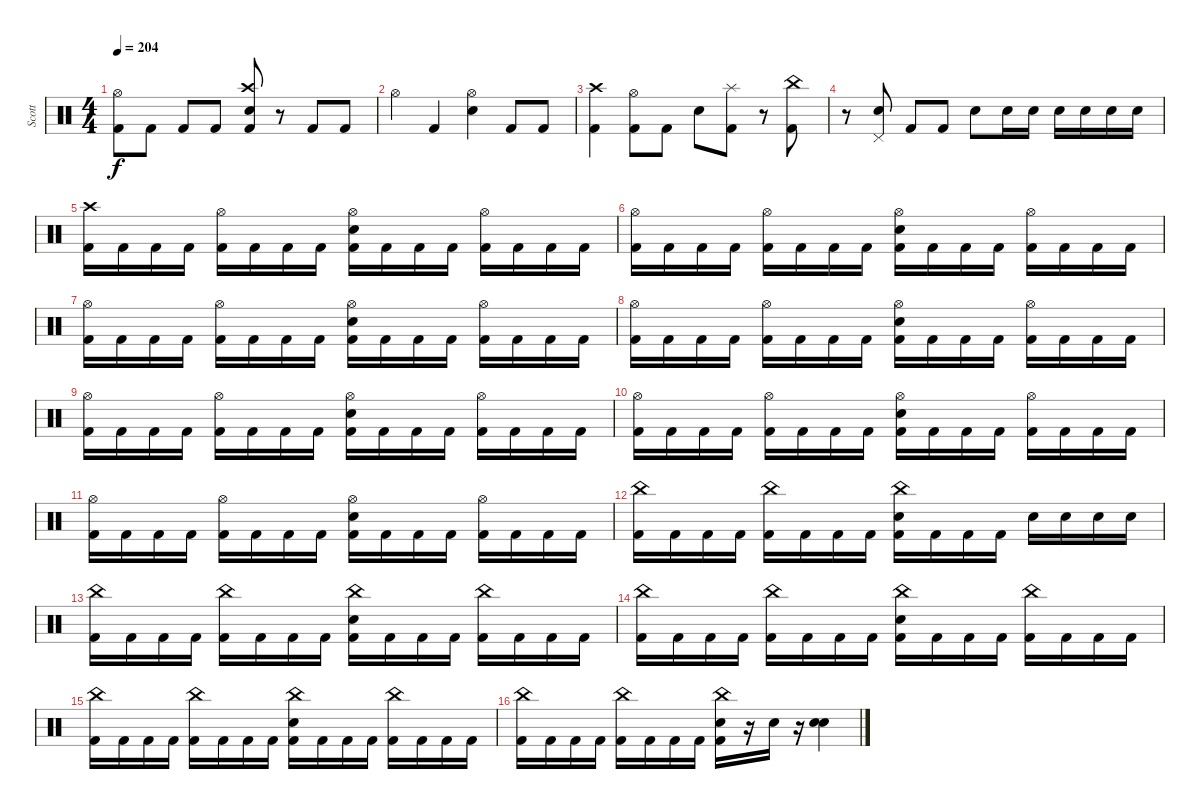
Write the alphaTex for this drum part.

\track ("Scott" "Scott") {instrument percussion}
\staff {score}
\articulation defaults
\ts (4 4)
\tempo 204
\clef neutral
\ks c
("Hi-Hat (open)" "Kick (hit) 2").8{dy f} "Kick (hit) 2".8 "Kick (hit) 2".8 "Kick (hit) 2".8 ("Crash high (hit)" "Snare (hit) 2" "Kick (hit) 2").8 r.8 "Kick (hit) 2".8 "Kick (hit) 2".8 |
"Hi-Hat (open)".4 "Kick (hit) 2".4 ("Hi-Hat (open)" "Snare (hit) 2").4 "Kick (hit) 2".8 "Kick (hit) 2".8 |
("Crash high (hit)" "Kick (hit) 2").4 ("Hi-Hat (open)" "Kick (hit) 2").8 "Kick (hit) 2".8 "Snare (hit) 2".8 ("Splash (hit)" "Kick (hit) 2").8 r.8 ("China (hit)" "Kick (hit) 2").8 |
r.8 ("Pedal Hi-Hat (hit)" "Snare (hit) 2").8 "Kick (hit) 2".8 "Kick (hit) 2".8 "Snare (hit) 2".8 "Snare (hit) 2".16 "Snare (hit) 2".16 "Snare (hit) 2".16 "Snare (hit) 2".16 "Snare (hit) 2".16 "Snare (hit) 2".16 |
("Crash high (hit)" "Kick (hit) 2").16 "Kick (hit) 2".16 "Kick (hit) 2".16 "Kick (hit) 2".16 ("Hi-Hat (open)" "Kick (hit) 2").16 "Kick (hit) 2".16 "Kick (hit) 2".16 "Kick (hit) 2".16 ("Hi-Hat (open)" "Snare (hit) 2" "Kick (hit) 2").16 "Kick (hit) 2".16 "Kick (hit) 2".16 "Kick (hit) 2".16 ("Hi-Hat (open)" "Kick (hit) 2").16 "Kick (hit) 2".16 "Kick (hit) 2".16 "Kick (hit) 2".16 |
("Hi-Hat (open)" "Kick (hit) 2").16 "Kick (hit) 2".16 "Kick (hit) 2".16 "Kick (hit) 2".16 ("Hi-Hat (open)" "Kick (hit) 2").16 "Kick (hit) 2".16 "Kick (hit) 2".16 "Kick (hit) 2".16 ("Hi-Hat (open)" "Snare (hit) 2" "Kick (hit) 2").16 "Kick (hit) 2".16 "Kick (hit) 2".16 "Kick (hit) 2".16 ("Hi-Hat (open)" "Kick (hit) 2").16 "Kick (hit) 2".16 "Kick (hit) 2".16 "Kick (hit) 2".16 |
("Hi-Hat (open)" "Kick (hit) 2").16 "Kick (hit) 2".16 "Kick (hit) 2".16 "Kick (hit) 2".16 ("Hi-Hat (open)" "Kick (hit) 2").16 "Kick (hit) 2".16 "Kick (hit) 2".16 "Kick (hit) 2".16 ("Hi-Hat (open)" "Snare (hit) 2" "Kick (hit) 2").16 "Kick (hit) 2".16 "Kick (hit) 2".16 "Kick (hit) 2".16 ("Hi-Hat (open)" "Kick (hit) 2").16 "Kick (hit) 2".16 "Kick (hit) 2".16 "Kick (hit) 2".16 |
("Hi-Hat (open)" "Kick (hit) 2").16 "Kick (hit) 2".16 "Kick (hit) 2".16 "Kick (hit) 2".16 ("Hi-Hat (open)" "Kick (hit) 2").16 "Kick (hit) 2".16 "Kick (hit) 2".16 "Kick (hit) 2".16 ("Hi-Hat (open)" "Snare (hit) 2" "Kick (hit) 2").16 "Kick (hit) 2".16 "Kick (hit) 2".16 "Kick (hit) 2".16 ("Hi-Hat (open)" "Kick (hit) 2").16 "Kick (hit) 2".16 "Kick (hit) 2".16 "Kick (hit) 2".16 |
("Hi-Hat (open)" "Kick (hit) 2").16 "Kick (hit) 2".16 "Kick (hit) 2".16 "Kick (hit) 2".16 ("Hi-Hat (open)" "Kick (hit) 2").16 "Kick (hit) 2".16 "Kick (hit) 2".16 "Kick (hit) 2".16 ("Hi-Hat (open)" "Snare (hit) 2" "Kick (hit) 2").16 "Kick (hit) 2".16 "Kick (hit) 2".16 "Kick (hit) 2".16 ("Hi-Hat (open)" "Kick (hit) 2").16 "Kick (hit) 2".16 "Kick (hit) 2".16 "Kick (hit) 2".16 |
("Hi-Hat (open)" "Kick (hit) 2").16 "Kick (hit) 2".16 "Kick (hit) 2".16 "Kick (hit) 2".16 ("Hi-Hat (open)" "Kick (hit) 2").16 "Kick (hit) 2".16 "Kick (hit) 2".16 "Kick (hit) 2".16 ("Hi-Hat (open)" "Snare (hit) 2" "Kick (hit) 2").16 "Kick (hit) 2".16 "Kick (hit) 2".16 "Kick (hit) 2".16 ("Hi-Hat (open)" "Kick (hit) 2").16 "Kick (hit) 2".16 "Kick (hit) 2".16 "Kick (hit) 2".16 |
("Hi-Hat (open)" "Kick (hit) 2").16 "Kick (hit) 2".16 "Kick (hit) 2".16 "Kick (hit) 2".16 ("Hi-Hat (open)" "Kick (hit) 2").16 "Kick (hit) 2".16 "Kick (hit) 2".16 "Kick (hit) 2".16 ("Hi-Hat (open)" "Snare (hit) 2" "Kick (hit) 2").16 "Kick (hit) 2".16 "Kick (hit) 2".16 "Kick (hit) 2".16 ("Hi-Hat (open)" "Kick (hit) 2").16 "Kick (hit) 2".16 "Kick (hit) 2".16 "Kick (hit) 2".16 |
("China (hit)" "Kick (hit) 2").16 "Kick (hit) 2".16 "Kick (hit) 2".16 "Kick (hit) 2".16 ("China (hit)" "Kick (hit) 2").16 "Kick (hit) 2".16 "Kick (hit) 2".16 "Kick (hit) 2".16 ("China (hit)" "Snare (hit) 2" "Kick (hit) 2").16 "Kick (hit) 2".16 "Kick (hit) 2".16 "Kick (hit) 2".16 "Snare (hit) 2".16 "Snare (hit) 2".16 "Snare (hit) 2".16 "Snare (hit) 2".16 |
("China (hit)" "Kick (hit) 2").16 "Kick (hit) 2".16 "Kick (hit) 2".16 "Kick (hit) 2".16 ("China (hit)" "Kick (hit) 2").16 "Kick (hit) 2".16 "Kick (hit) 2".16 "Kick (hit) 2".16 ("China (hit)" "Snare (hit) 2" "Kick (hit) 2").16 "Kick (hit) 2".16 "Kick (hit) 2".16 "Kick (hit) 2".16 ("China (hit)" "Kick (hit) 2").16 "Kick (hit) 2".16 "Kick (hit) 2".16 "Kick (hit) 2".16 |
("China (hit)" "Kick (hit) 2").16 "Kick (hit) 2".16 "Kick (hit) 2".16 "Kick (hit) 2".16 ("China (hit)" "Kick (hit) 2").16 "Kick (hit) 2".16 "Kick (hit) 2".16 "Kick (hit) 2".16 ("China (hit)" "Snare (hit) 2" "Kick (hit) 2").16 "Kick (hit) 2".16 "Kick (hit) 2".16 "Kick (hit) 2".16 ("China (hit)" "Kick (hit) 2").16 "Kick (hit) 2".16 "Kick (hit) 2".16 "Kick (hit) 2".16 |
("China (hit)" "Kick (hit) 2").16 "Kick (hit) 2".16 "Kick (hit) 2".16 "Kick (hit) 2".16 ("China (hit)" "Kick (hit) 2").16 "Kick (hit) 2".16 "Kick (hit) 2".16 "Kick (hit) 2".16 ("China (hit)" "Snare (hit) 2" "Kick (hit) 2").16 "Kick (hit) 2".16 "Kick (hit) 2".16 "Kick (hit) 2".16 ("China (hit)" "Kick (hit) 2").16 "Kick (hit) 2".16 "Kick (hit) 2".16 "Kick (hit) 2".16 |
("China (hit)" "Kick (hit) 2").16 "Kick (hit) 2".16 "Kick (hit) 2".16 "Kick (hit) 2".16 ("China (hit)" "Kick (hit) 2").16 "Kick (hit) 2".16 "Kick (hit) 2".16 "Kick (hit) 2".16 ("China (hit)" "Snare (hit) 2" "Kick (hit) 2").16 r.16 "Snare (hit) 2".16 r.16 ("Snare (hit) 2" "Snare (hit) 2").4
